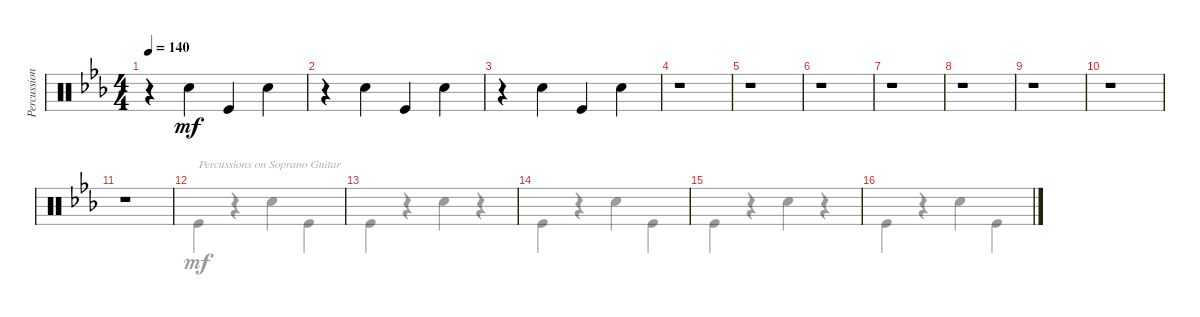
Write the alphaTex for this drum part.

\track ("Percussions" "Percussion") {instrument percussion}
\staff {score}
\articulation defaults
\voice
\ts (4 4)
\tempo 140
\clef neutral
\ks cminor
r.4{dy mf} "Snare (hit) 2".4 "Kick (hit)".4 "Snare (hit) 2".4 |
r.4 "Snare (hit) 2".4 "Kick (hit)".4 "Snare (hit) 2".4 |
r.4 "Snare (hit) 2".4 "Kick (hit)".4 "Snare (hit) 2".4 |
r.1 |
r.1 |
r.1 |
r.1 |
r.1 |
r.1 |
r.1 |
r.1 |
|
|
|
|
\voice
\clef neutral
\ottava regular
\simile none
\ks cminor
|
|
|
|
|
|
|
|
|
|
|
"Kick (hit)".4{txt "Percussions on Soprano Guitar"} r.4 "Snare (hit) 2".4 "Kick (hit)".4 |
"Kick (hit)".4 r.4 "Snare (hit) 2".4 r.4 |
"Kick (hit)".4 r.4 "Snare (hit) 2".4 "Kick (hit)".4 |
"Kick (hit)".4 r.4 "Snare (hit) 2".4 r.4 |
"Kick (hit)".4 r.4 "Snare (hit) 2".4 "Kick (hit)".4
